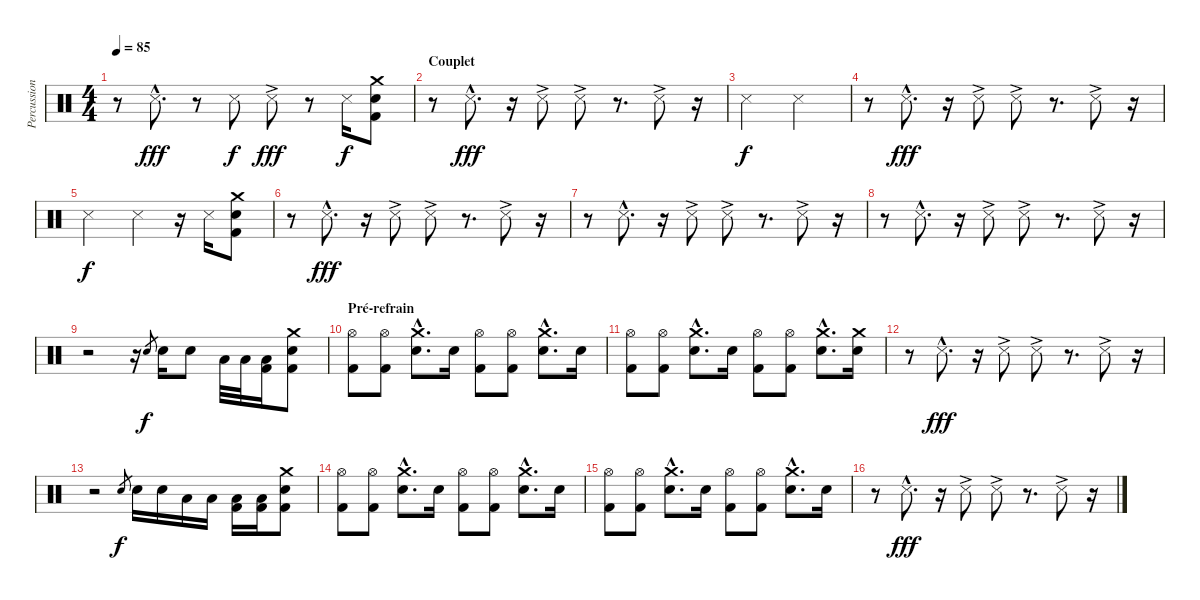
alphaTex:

\track ("Percussions" "Percussion") {instrument percussion}
\staff {score}
\articulation defaults
\ts (4 4)
\tempo 85
\clef neutral
\ks c
r.8{dy fff} "Snare (side stick) 3"{hac}.8{d} r.8 "Snare (side stick) 3".8{dy f} "Snare (side stick) 3"{ac}.8{dy fff} r.8 "Snare (side stick) 3".16{dy f} ("Crash medium (hit)" "Snare (hit) 2" "Kick (hit) 2").8 |
\section ("" "Couplet")
r.8 "Snare (side stick) 3"{hac}.8{d dy fff} r.16 "Snare (side stick) 3"{ac}.8 "Snare (side stick) 3"{ac}.8 r.8{d} "Snare (side stick) 3"{ac}.8 r.16 |
"Snare (side stick) 3".2{dy f} "Snare (side stick) 3".2 |
r.8 "Snare (side stick) 3"{hac}.8{d dy fff} r.16 "Snare (side stick) 3"{ac}.8 "Snare (side stick) 3"{ac}.8 r.8{d} "Snare (side stick) 3"{ac}.8 r.16 |
"Snare (side stick) 3".2{dy f} "Snare (side stick) 3".4 r.16 "Snare (side stick) 3".16 ("Crash medium (hit)" "Snare (hit) 2" "Kick (hit) 2").8 |
r.8 "Snare (side stick) 3"{hac}.8{d dy fff} r.16 "Snare (side stick) 3"{ac}.8 "Snare (side stick) 3"{ac}.8 r.8{d} "Snare (side stick) 3"{ac}.8 r.16 |
r.8 "Snare (side stick) 3"{hac}.8{d} r.16 "Snare (side stick) 3"{ac}.8 "Snare (side stick) 3"{ac}.8 r.8{d} "Snare (side stick) 3"{ac}.8 r.16 |
r.8 "Snare (side stick) 3"{hac}.8{d} r.16 "Snare (side stick) 3"{ac}.8 "Snare (side stick) 3"{ac}.8 r.8{d} "Snare (side stick) 3"{ac}.8 r.16 |
r.2 r.16 "Snare (hit) 2".8{gr dy f} "Snare (hit) 2".16 "Snare (hit) 2".8 "Low Tom (hit)".32 "Low Floor Tom (hit)".32 ("Low Floor Tom (hit)" "Kick (hit) 2").16 ("Crash medium (hit)" "Snare (hit) 2" "Kick (hit) 2").8 |
\section ("" "Pré-refrain")
("Hi-Hat (open)" "Kick (hit) 2").8 ("Hi-Hat (open)" "Kick (hit) 2").8 ("Crash medium (hit)"{hac} "Snare (hit) 2"{hac}).8{d} "Snare (hit) 2".16 ("Hi-Hat (open)" "Kick (hit) 2").8 ("Hi-Hat (open)" "Kick (hit) 2").8 ("Crash medium (hit)"{hac} "Snare (hit) 2"{hac}).8{d} "Snare (hit) 2".16 |
("Hi-Hat (open)" "Kick (hit) 2").8 ("Hi-Hat (open)" "Kick (hit) 2").8 ("Crash medium (hit)"{hac} "Snare (hit) 2"{hac}).8{d} "Snare (hit) 2".16 ("Hi-Hat (open)" "Kick (hit) 2").8 ("Hi-Hat (open)" "Kick (hit) 2").8 ("Crash medium (hit)"{hac} "Snare (hit) 2"{hac}).8{d} ("Crash medium (hit)" "Snare (hit) 2").16 |
r.8 "Snare (side stick) 3"{hac}.8{d dy fff} r.16 "Snare (side stick) 3"{ac}.8 "Snare (side stick) 3"{ac}.8 r.8{d} "Snare (side stick) 3"{ac}.8 r.16 |
r.2 "Snare (hit) 2".8{gr dy f} "Snare (hit) 2".16 "Snare (hit) 2".16 "Low Tom (hit)".16 "Low Floor Tom (hit)".16 ("Low Floor Tom (hit)" "Kick (hit) 2").16 ("Low Floor Tom (hit)" "Kick (hit) 2").16 ("Crash medium (hit)" "Snare (hit) 2" "Kick (hit) 2").8 |
("Hi-Hat (open)" "Kick (hit) 2").8 ("Hi-Hat (open)" "Kick (hit) 2").8 ("Crash medium (hit)"{hac} "Snare (hit) 2"{hac}).8{d} "Snare (hit) 2".16 ("Hi-Hat (open)" "Kick (hit) 2").8 ("Hi-Hat (open)" "Kick (hit) 2").8 ("Crash medium (hit)"{hac} "Snare (hit) 2"{hac}).8{d} "Snare (hit) 2".16 |
("Hi-Hat (open)" "Kick (hit) 2").8 ("Hi-Hat (open)" "Kick (hit) 2").8 ("Crash medium (hit)"{hac} "Snare (hit) 2"{hac}).8{d} "Snare (hit) 2".16 ("Hi-Hat (open)" "Kick (hit) 2").8 ("Hi-Hat (open)" "Kick (hit) 2").8 ("Crash medium (hit)"{hac} "Snare (hit) 2"{hac}).8{d} "Snare (hit) 2".16 |
r.8 "Snare (side stick) 3"{hac}.8{d dy fff} r.16 "Snare (side stick) 3"{ac}.8 "Snare (side stick) 3"{ac}.8 r.8{d} "Snare (side stick) 3"{ac}.8 r.16
